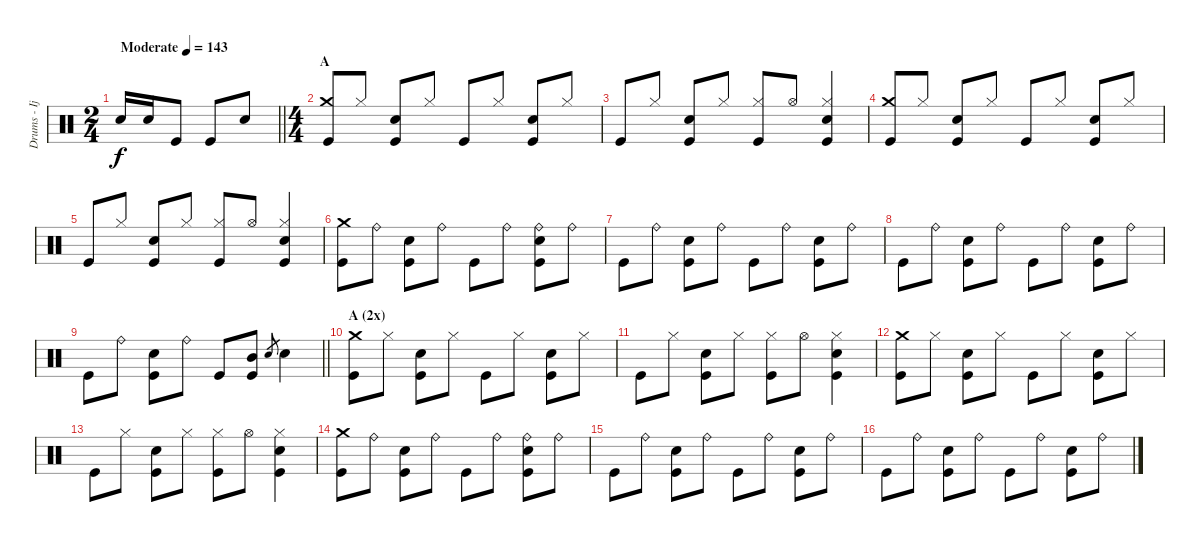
\track ("Drums - Ijichi" "Drums - Ij") {instrument percussion}
\staff {score}
\articulation defaults
\ts (2 4)
\tempo (143 "Moderate")
\clef neutral
\barLineRight lightlight
\ks c "Electric Snare (hit)".16{dy f beam Up} "Electric Snare (hit)".16{beam Up} "Kick (hit)".8{beam Up} "Kick (hit)".8{beam Up} "Electric Snare (hit)".8{beam Up}
|
\ts (4 4)
\section ("" "A")
("Crash medium (hit)" "Kick (hit)").8{beam Up} "Hi-Hat (closed)".8{beam Up} ("Electric Snare (hit)" "Kick (hit)").8{beam Up} "Hi-Hat (closed)".8{beam Up} "Kick (hit)".8{beam Up} "Hi-Hat (closed)".8{beam Up} ("Electric Snare (hit)" "Kick (hit)").8{beam Up} "Hi-Hat (closed)".8{beam Up} |
"Kick (hit)".8{beam Up} "Hi-Hat (closed)".8{beam Up} ("Electric Snare (hit)" "Kick (hit)").8{beam Up} "Hi-Hat (closed)".8{beam Up} ("Hi-Hat (closed)" "Kick (hit)").8{beam Up} "Hi-Hat (open)".8{beam Up} ("Hi-Hat (closed)" "Electric Snare (hit)" "Kick (hit)").4{beam Up} |
("Crash medium (hit)" "Kick (hit)").8{beam Up} "Hi-Hat (closed)".8{beam Up} ("Electric Snare (hit)" "Kick (hit)").8{beam Up} "Hi-Hat (closed)".8{beam Up} "Kick (hit)".8{beam Up} "Hi-Hat (closed)".8{beam Up} ("Electric Snare (hit)" "Kick (hit)").8{beam Up} "Hi-Hat (closed)".8{beam Up} |
"Kick (hit)".8{beam Up} "Hi-Hat (closed)".8{beam Up} ("Electric Snare (hit)" "Kick (hit)").8{beam Up} "Hi-Hat (closed)".8{beam Up} ("Hi-Hat (closed)" "Kick (hit)").8{beam Up} "Hi-Hat (open)".8{beam Up} ("Hi-Hat (closed)" "Electric Snare (hit)" "Kick (hit)").4{beam Up} |
("Crash medium (hit)" "Kick (hit)").8 "Ride (bell)".8 ("Electric Snare (hit)" "Kick (hit)").8 "Ride (bell)".8 "Kick (hit)".8 "Ride (bell)".8 ("Ride (bell)" "Electric Snare (hit)" "Kick (hit)").8 "Ride (bell)".8 |
"Kick (hit)".8 "Ride (bell)".8 ("Electric Snare (hit)" "Kick (hit)").8 "Ride (bell)".8 "Kick (hit)".8 "Ride (bell)".8 ("Electric Snare (hit)" "Kick (hit)").8 "Ride (bell)".8 |
"Kick (hit)".8 "Ride (bell)".8 ("Electric Snare (hit)" "Kick (hit)").8 "Ride (bell)".8 "Kick (hit)".8 "Ride (bell)".8 ("Electric Snare (hit)" "Kick (hit)").8 "Ride (bell)".8 |
\barLineRight lightlight "Kick (hit)".8 "Ride (bell)".8
("Electric Snare (hit)" "Kick (hit)").8 "Ride (bell)".8 "Kick (hit)".8 ("Mid Tom (hit)" "Kick (hit)").8 "Electric Snare (hit)".8{gr} "Electric Snare (hit)".4 |
\section ("" "A (2x)")
("Crash medium (hit)" "Kick (hit)").8 "Hi-Hat (closed)".8 ("Electric Snare (hit)" "Kick (hit)").8 "Hi-Hat (closed)".8 "Kick (hit)".8 "Hi-Hat (closed)".8 ("Electric Snare (hit)" "Kick (hit)").8 "Hi-Hat (closed)".8 |
"Kick (hit)".8 "Hi-Hat (closed)".8 ("Electric Snare (hit)" "Kick (hit)").8 "Hi-Hat (closed)".8 ("Hi-Hat (closed)" "Kick (hit)").8 "Hi-Hat (open)".8 ("Hi-Hat (closed)" "Electric Snare (hit)" "Kick (hit)").4 |
("Crash medium (hit)" "Kick (hit)").8 "Hi-Hat (closed)".8 ("Electric Snare (hit)" "Kick (hit)").8 "Hi-Hat (closed)".8 "Kick (hit)".8 "Hi-Hat (closed)".8 ("Electric Snare (hit)" "Kick (hit)").8 "Hi-Hat (closed)".8 |
"Kick (hit)".8 "Hi-Hat (closed)".8 ("Electric Snare (hit)" "Kick (hit)").8 "Hi-Hat (closed)".8 ("Hi-Hat (closed)" "Kick (hit)").8 "Hi-Hat (open)".8 ("Hi-Hat (closed)" "Electric Snare (hit)" "Kick (hit)").4 |
("Crash medium (hit)" "Kick (hit)").8 "Ride (bell)".8 ("Electric Snare (hit)" "Kick (hit)").8 "Ride (bell)".8 "Kick (hit)".8 "Ride (bell)".8 ("Ride (bell)" "Electric Snare (hit)" "Kick (hit)").8 "Ride (bell)".8 |
"Kick (hit)".8 "Ride (bell)".8 ("Electric Snare (hit)" "Kick (hit)").8 "Ride (bell)".8 "Kick (hit)".8 "Ride (bell)".8 ("Electric Snare (hit)" "Kick (hit)").8 "Ride (bell)".8 |
"Kick (hit)".8 "Ride (bell)".8 ("Electric Snare (hit)" "Kick (hit)").8 "Ride (bell)".8 "Kick (hit)".8 "Ride (bell)".8 ("Electric Snare (hit)" "Kick (hit)").8 "Ride (bell)".8
